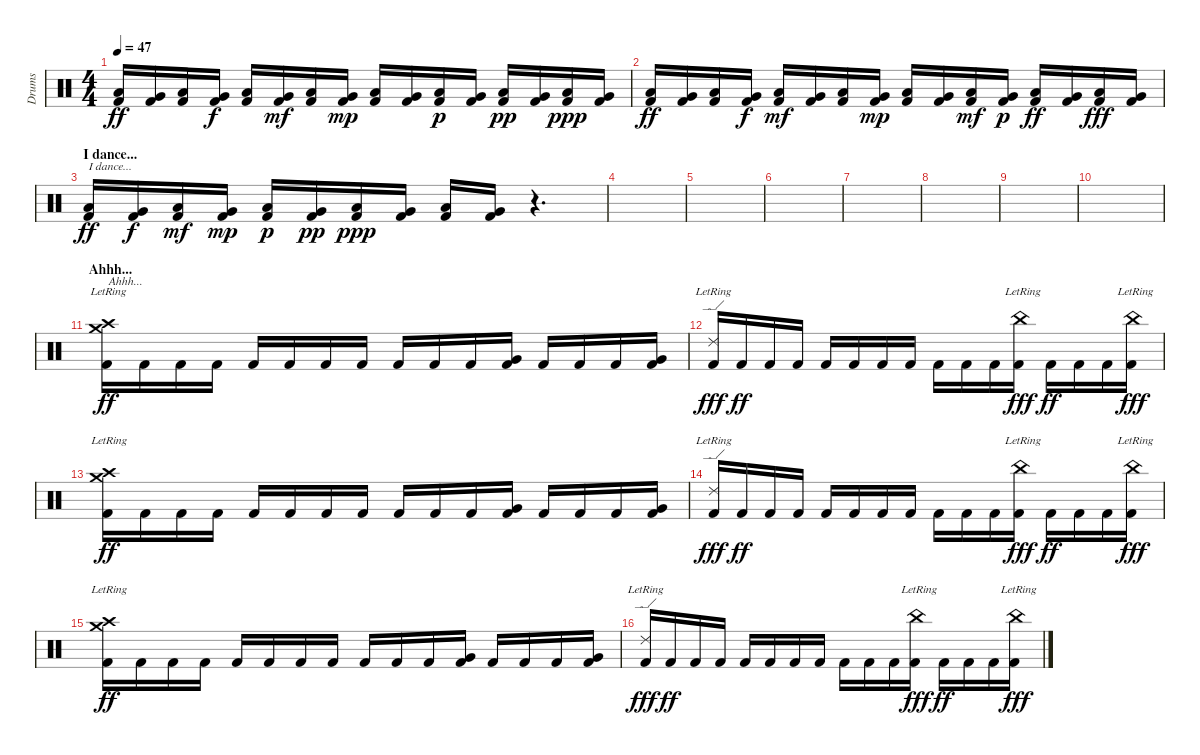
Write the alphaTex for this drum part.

\track ("Drums" "Drums") {instrument percussion}
\staff {score}
\articulation defaults
\ts (4 4)
\tempo 47
\clef neutral
\ks c
("Low Floor Tom (hit)" "Kick (hit) 2").16{dy ff} ("Very Low Tom (hit)" "Kick (hit) 2").16 ("Low Floor Tom (hit)" "Kick (hit) 2").16 ("Very Low Tom (hit)" "Kick (hit) 2").16{dy f} ("Low Floor Tom (hit)" "Kick (hit) 2").16 ("Very Low Tom (hit)" "Kick (hit) 2").16{dy mf} ("Low Floor Tom (hit)" "Kick (hit) 2").16 ("Very Low Tom (hit)" "Kick (hit) 2").16{dy mp} ("Low Floor Tom (hit)" "Kick (hit) 2").16 ("Very Low Tom (hit)" "Kick (hit) 2").16 ("Low Floor Tom (hit)" "Kick (hit) 2").16{dy p} ("Very Low Tom (hit)" "Kick (hit) 2").16 ("Low Floor Tom (hit)" "Kick (hit) 2").16{dy pp} ("Very Low Tom (hit)" "Kick (hit) 2").16 ("Low Floor Tom (hit)" "Kick (hit) 2").16{dy ppp} ("Very Low Tom (hit)" "Kick (hit) 2").16 |
("Low Floor Tom (hit)" "Kick (hit) 2").16{dy ff} ("Very Low Tom (hit)" "Kick (hit) 2").16 ("Low Floor Tom (hit)" "Kick (hit) 2").16 ("Very Low Tom (hit)" "Kick (hit) 2").16{dy f} ("Low Floor Tom (hit)" "Kick (hit) 2").16{dy mf} ("Very Low Tom (hit)" "Kick (hit) 2").16 ("Low Floor Tom (hit)" "Kick (hit) 2").16 ("Very Low Tom (hit)" "Kick (hit) 2").16{dy mp} ("Low Floor Tom (hit)" "Kick (hit) 2").16 ("Very Low Tom (hit)" "Kick (hit) 2").16 ("Low Floor Tom (hit)" "Kick (hit) 2").16{dy mf} ("Very Low Tom (hit)" "Kick (hit) 2").16{dy p} ("Low Floor Tom (hit)" "Kick (hit) 2").16{dy ff} ("Very Low Tom (hit)" "Kick (hit) 2").16 ("Low Floor Tom (hit)" "Kick (hit) 2").16{dy fff} ("Very Low Tom (hit)" "Kick (hit) 2").16 |
\section ("" "I dance...")
("Low Floor Tom (hit)" "Kick (hit) 2").16{txt "I dance..." dy ff} ("Very Low Tom (hit)" "Kick (hit) 2").16{dy f} ("Low Floor Tom (hit)" "Kick (hit) 2").16{dy mf} ("Very Low Tom (hit)" "Kick (hit) 2").16{dy mp} ("Low Floor Tom (hit)" "Kick (hit) 2").16{dy p} ("Very Low Tom (hit)" "Kick (hit) 2").16{dy pp} ("Low Floor Tom (hit)" "Kick (hit) 2").16{dy ppp} ("Very Low Tom (hit)" "Kick (hit) 2").16 ("Low Floor Tom (hit)" "Kick (hit) 2").16 ("Very Low Tom (hit)" "Kick (hit) 2").16 r.4{d} |
|
|
|
|
|
|
|
\section ("" "Ahhh...")
("Crash high (hit)"{lr} "Crash medium (hit)"{lr} "Kick (hit) 2").16{txt "Ahhh..." dy ff} "Kick (hit) 2".16 "Kick (hit) 2".16 "Kick (hit) 2".16 "Kick (hit) 2".16 "Kick (hit) 2".16 "Kick (hit) 2".16 "Kick (hit) 2".16 "Kick (hit) 2".16 "Kick (hit) 2".16 "Kick (hit) 2".16 ("Very Low Tom (hit)" "Kick (hit) 2").16 "Kick (hit) 2".16 "Kick (hit) 2".16 "Kick (hit) 2".16 ("Very Low Tom (hit)" "Kick (hit) 2").16 |
("Ride (edge) 2"{lr} "Kick (hit) 2").16{dy fff} "Kick (hit) 2".16{dy ff} "Kick (hit) 2".16 "Kick (hit) 2".16 "Kick (hit) 2".16 "Kick (hit) 2".16 "Kick (hit) 2".16 "Kick (hit) 2".16 "Kick (hit) 2".16 "Kick (hit) 2".16 "Kick (hit) 2".16 ("China (hit)"{lr} "Kick (hit) 2").16{dy fff} "Kick (hit) 2".16{dy ff} "Kick (hit) 2".16 "Kick (hit) 2".16 ("China (hit)"{lr} "Kick (hit) 2").16{dy fff} |
("Crash high (hit)"{lr} "Crash medium (hit)"{lr} "Kick (hit) 2").16{dy ff} "Kick (hit) 2".16 "Kick (hit) 2".16 "Kick (hit) 2".16 "Kick (hit) 2".16 "Kick (hit) 2".16 "Kick (hit) 2".16 "Kick (hit) 2".16 "Kick (hit) 2".16 "Kick (hit) 2".16 "Kick (hit) 2".16 ("Very Low Tom (hit)" "Kick (hit) 2").16 "Kick (hit) 2".16 "Kick (hit) 2".16 "Kick (hit) 2".16 ("Very Low Tom (hit)" "Kick (hit) 2").16 |
("Ride (edge) 2"{lr} "Kick (hit) 2").16{dy fff} "Kick (hit) 2".16{dy ff} "Kick (hit) 2".16 "Kick (hit) 2".16 "Kick (hit) 2".16 "Kick (hit) 2".16 "Kick (hit) 2".16 "Kick (hit) 2".16 "Kick (hit) 2".16 "Kick (hit) 2".16 "Kick (hit) 2".16 ("China (hit)"{lr} "Kick (hit) 2").16{dy fff} "Kick (hit) 2".16{dy ff} "Kick (hit) 2".16 "Kick (hit) 2".16 ("China (hit)"{lr} "Kick (hit) 2").16{dy fff} |
("Crash high (hit)"{lr} "Crash medium (hit)"{lr} "Kick (hit) 2").16{dy ff} "Kick (hit) 2".16 "Kick (hit) 2".16 "Kick (hit) 2".16 "Kick (hit) 2".16 "Kick (hit) 2".16 "Kick (hit) 2".16 "Kick (hit) 2".16 "Kick (hit) 2".16 "Kick (hit) 2".16 "Kick (hit) 2".16 ("Very Low Tom (hit)" "Kick (hit) 2").16 "Kick (hit) 2".16 "Kick (hit) 2".16 "Kick (hit) 2".16 ("Very Low Tom (hit)" "Kick (hit) 2").16 |
("Ride (edge) 2"{lr} "Kick (hit) 2").16{dy fff} "Kick (hit) 2".16{dy ff} "Kick (hit) 2".16 "Kick (hit) 2".16 "Kick (hit) 2".16 "Kick (hit) 2".16 "Kick (hit) 2".16 "Kick (hit) 2".16 "Kick (hit) 2".16 "Kick (hit) 2".16 "Kick (hit) 2".16 ("China (hit)"{lr} "Kick (hit) 2").16{dy fff} "Kick (hit) 2".16{dy ff} "Kick (hit) 2".16 "Kick (hit) 2".16 ("China (hit)"{lr} "Kick (hit) 2").16{dy fff}
